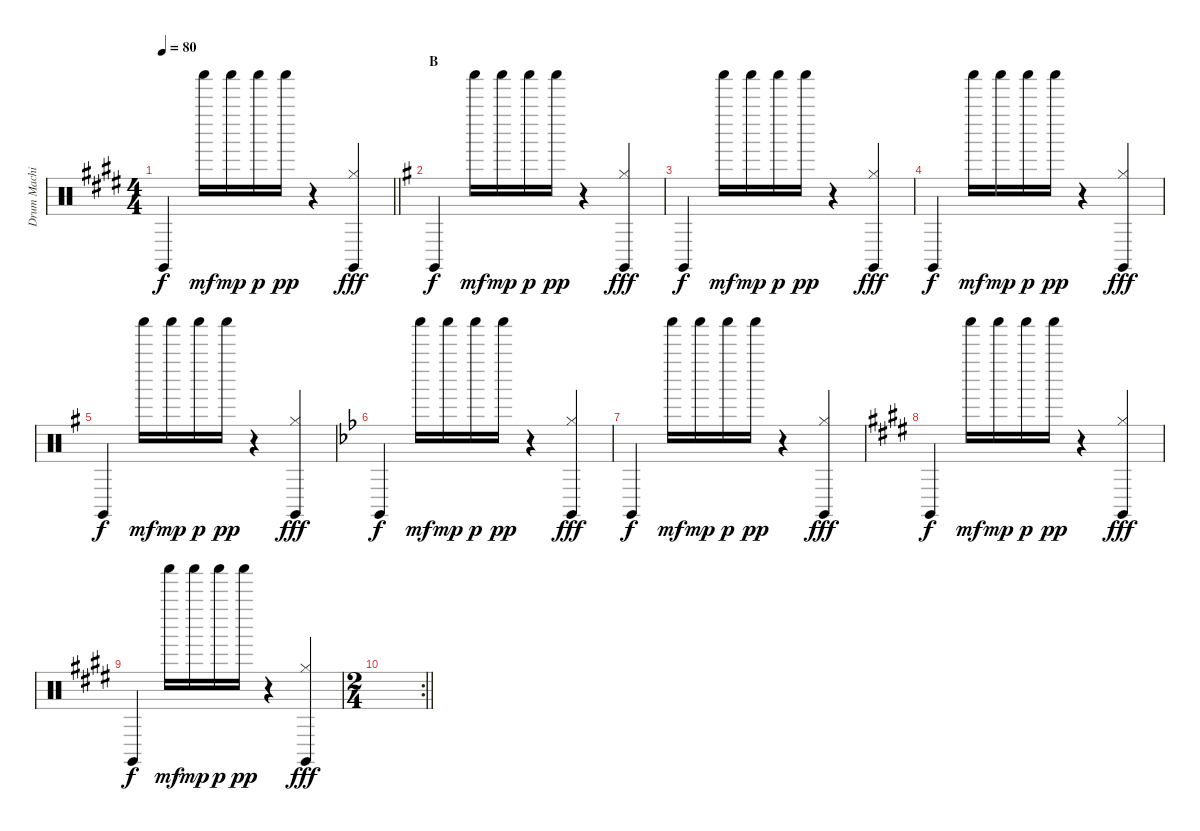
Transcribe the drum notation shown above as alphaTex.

\track ("Drum Machine" "Drum Machi") {instrument percussion}
\staff {score}
\articulation defaults
\ts (4 4)
\tempo 80
\clef neutral
\barLineRight lightlight
\ks e "Claves (hit)".4{dy f} "Shaker (hit)".16{dy mf} "Shaker (hit)".16{dy mp} "Shaker (hit)".16{dy p} "Shaker (hit)".16{dy pp}
r.4 ("Hi-Hat (closed)" "Claves (hit)").4{dy fff} |
\section ("" "B")
\ks g "Claves (hit)".4{dy f} "Shaker (hit)".16{dy mf} "Shaker (hit)".16{dy mp} "Shaker (hit)".16{dy p} "Shaker (hit)".16{dy pp}
r.4 ("Hi-Hat (closed)" "Claves (hit)").4{dy fff} |
"Claves (hit)".4{dy f} "Shaker (hit)".16{dy mf} "Shaker (hit)".16{dy mp} "Shaker (hit)".16{dy p} "Shaker (hit)".16{dy pp} r.4 ("Hi-Hat (closed)" "Claves (hit)").4{dy fff} |
"Claves (hit)".4{dy f} "Shaker (hit)".16{dy mf} "Shaker (hit)".16{dy mp} "Shaker (hit)".16{dy p} "Shaker (hit)".16{dy pp} r.4 ("Hi-Hat (closed)" "Claves (hit)").4{dy fff} |
"Claves (hit)".4{dy f} "Shaker (hit)".16{dy mf} "Shaker (hit)".16{dy mp} "Shaker (hit)".16{dy p} "Shaker (hit)".16{dy pp} r.4 ("Hi-Hat (closed)" "Claves (hit)").4{dy fff} |
\ks bb "Claves (hit)".4{dy f} "Shaker (hit)".16{dy mf} "Shaker (hit)".16{dy mp} "Shaker (hit)".16{dy p} "Shaker (hit)".16{dy pp}
r.4 ("Hi-Hat (closed)" "Claves (hit)").4{dy fff} |
"Claves (hit)".4{dy f} "Shaker (hit)".16{dy mf} "Shaker (hit)".16{dy mp} "Shaker (hit)".16{dy p} "Shaker (hit)".16{dy pp} r.4 ("Hi-Hat (closed)" "Claves (hit)").4{dy fff} |
\ks e "Claves (hit)".4{dy f} "Shaker (hit)".16{dy mf} "Shaker (hit)".16{dy mp} "Shaker (hit)".16{dy p} "Shaker (hit)".16{dy pp}
r.4 ("Hi-Hat (closed)" "Claves (hit)").4{dy fff} |
"Claves (hit)".4{dy f} "Shaker (hit)".16{dy mf} "Shaker (hit)".16{dy mp} "Shaker (hit)".16{dy p} "Shaker (hit)".16{dy pp} r.4 ("Hi-Hat (closed)" "Claves (hit)").4{dy fff} |
\rc 2
\ts (2 4)
\barLineRight lightlight
